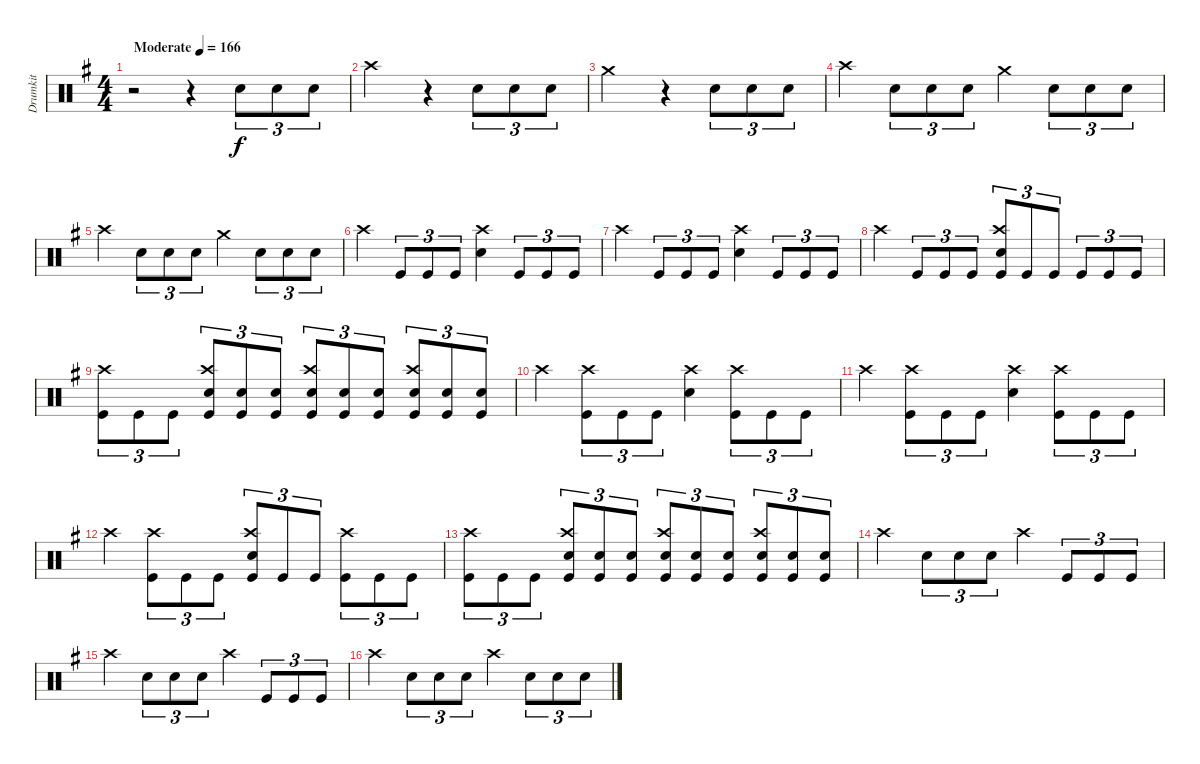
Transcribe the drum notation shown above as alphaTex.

\track ("Drumkit" "Drumkit") {instrument percussion}
\staff {score}
\articulation defaults
\ts (4 4)
\tempo (166 "Moderate")
\clef neutral
\ks g
r.2{dy f} r.4 "Snare (hit) 2".8{tu (3 2)} "Snare (hit) 2".8{tu (3 2)} "Snare (hit) 2".8{tu (3 2)} |
"Crash high (hit)".2 r.4 "Snare (hit) 2".8{tu (3 2)} "Snare (hit) 2".8{tu (3 2)} "Snare (hit) 2".8{tu (3 2)} |
"Crash medium (hit)".2 r.4 "Snare (hit) 2".8{tu (3 2)} "Snare (hit) 2".8{tu (3 2)} "Snare (hit) 2".8{tu (3 2)} |
"Crash high (hit)".4 "Snare (hit) 2".8{tu (3 2)} "Snare (hit) 2".8{tu (3 2)} "Snare (hit) 2".8{tu (3 2)} "Crash medium (hit)".4 "Snare (hit) 2".8{tu (3 2)} "Snare (hit) 2".8{tu (3 2)} "Snare (hit) 2".8{tu (3 2)} |
"Crash high (hit)".4 "Snare (hit) 2".8{tu (3 2)} "Snare (hit) 2".8{tu (3 2)} "Snare (hit) 2".8{tu (3 2)} "Crash medium (hit)".4 "Snare (hit) 2".8{tu (3 2)} "Snare (hit) 2".8{tu (3 2)} "Snare (hit) 2".8{tu (3 2)} |
"Crash high (hit)".4 "Kick (hit)".8{tu (3 2)} "Kick (hit)".8{tu (3 2)} "Kick (hit)".8{tu (3 2)} ("Crash high (hit)" "Snare (hit) 2").4 "Kick (hit)".8{tu (3 2)} "Kick (hit)".8{tu (3 2)} "Kick (hit)".8{tu (3 2)} |
"Crash high (hit)".4 "Kick (hit)".8{tu (3 2)} "Kick (hit)".8{tu (3 2)} "Kick (hit)".8{tu (3 2)} ("Crash high (hit)" "Snare (hit) 2").4 "Kick (hit)".8{tu (3 2)} "Kick (hit)".8{tu (3 2)} "Kick (hit)".8{tu (3 2)} |
"Crash high (hit)".4 "Kick (hit)".8{tu (3 2)} "Kick (hit)".8{tu (3 2)} "Kick (hit)".8{tu (3 2)} ("Crash high (hit)" "Snare (hit) 2" "Kick (hit)").8{tu (3 2)} "Kick (hit)".8{tu (3 2)} "Kick (hit)".8{tu (3 2)} "Kick (hit)".8{tu (3 2)} "Kick (hit)".8{tu (3 2)} "Kick (hit)".8{tu (3 2)} |
("Crash high (hit)" "Kick (hit)").8{tu (3 2)} "Kick (hit)".8{tu (3 2)} "Kick (hit)".8{tu (3 2)} ("Crash high (hit)" "Snare (hit) 2" "Kick (hit)").8{tu (3 2)} ("Snare (hit) 2" "Kick (hit)").8{tu (3 2)} ("Snare (hit) 2" "Kick (hit)").8{tu (3 2)} ("Crash high (hit)" "Snare (hit) 2" "Kick (hit)").8{tu (3 2)} ("Snare (hit) 2" "Kick (hit)").8{tu (3 2)} ("Snare (hit) 2" "Kick (hit)").8{tu (3 2)} ("Crash high (hit)" "Snare (hit) 2" "Kick (hit)").8{tu (3 2)} ("Snare (hit) 2" "Kick (hit)").8{tu (3 2)} ("Snare (hit) 2" "Kick (hit)").8{tu (3 2)} |
"Crash high (hit)".4 ("Crash high (hit)" "Kick (hit)").8{tu (3 2)} "Kick (hit)".8{tu (3 2)} "Kick (hit)".8{tu (3 2)} ("Crash high (hit)" "Snare (hit) 2").4 ("Crash high (hit)" "Kick (hit)").8{tu (3 2)} "Kick (hit)".8{tu (3 2)} "Kick (hit)".8{tu (3 2)} |
"Crash high (hit)".4 ("Crash high (hit)" "Kick (hit)").8{tu (3 2)} "Kick (hit)".8{tu (3 2)} "Kick (hit)".8{tu (3 2)} ("Crash high (hit)" "Snare (hit) 2").4 ("Crash high (hit)" "Kick (hit)").8{tu (3 2)} "Kick (hit)".8{tu (3 2)} "Kick (hit)".8{tu (3 2)} |
"Crash high (hit)".4 ("Crash high (hit)" "Kick (hit)").8{tu (3 2)} "Kick (hit)".8{tu (3 2)} "Kick (hit)".8{tu (3 2)} ("Crash high (hit)" "Snare (hit) 2" "Kick (hit)").8{tu (3 2)} "Kick (hit)".8{tu (3 2)} "Kick (hit)".8{tu (3 2)} ("Crash high (hit)" "Kick (hit)").8{tu (3 2)} "Kick (hit)".8{tu (3 2)} "Kick (hit)".8{tu (3 2)} |
("Crash high (hit)" "Kick (hit)").8{tu (3 2)} "Kick (hit)".8{tu (3 2)} "Kick (hit)".8{tu (3 2)} ("Crash high (hit)" "Snare (hit) 2" "Kick (hit)").8{tu (3 2)} ("Snare (hit) 2" "Kick (hit)").8{tu (3 2)} ("Snare (hit) 2" "Kick (hit)").8{tu (3 2)} ("Crash high (hit)" "Snare (hit) 2" "Kick (hit)").8{tu (3 2)} ("Snare (hit) 2" "Kick (hit)").8{tu (3 2)} ("Snare (hit) 2" "Kick (hit)").8{tu (3 2)} ("Crash high (hit)" "Snare (hit) 2" "Kick (hit)").8{tu (3 2)} ("Snare (hit) 2" "Kick (hit)").8{tu (3 2)} ("Snare (hit) 2" "Kick (hit)").8{tu (3 2)} |
"Crash high (hit)".4 "Snare (hit) 2".8{tu (3 2)} "Snare (hit) 2".8{tu (3 2)} "Snare (hit) 2".8{tu (3 2)} "Crash high (hit)".4 "Kick (hit)".8{tu (3 2)} "Kick (hit)".8{tu (3 2)} "Kick (hit)".8{tu (3 2)} |
"Crash high (hit)".4 "Snare (hit) 2".8{tu (3 2)} "Snare (hit) 2".8{tu (3 2)} "Snare (hit) 2".8{tu (3 2)} "Crash high (hit)".4 "Kick (hit)".8{tu (3 2)} "Kick (hit)".8{tu (3 2)} "Kick (hit)".8{tu (3 2)} |
"Crash high (hit)".4 "Snare (hit) 2".8{tu (3 2)} "Snare (hit) 2".8{tu (3 2)} "Snare (hit) 2".8{tu (3 2)} "Crash high (hit)".4 "Snare (hit) 2".8{tu (3 2)} "Snare (hit) 2".8{tu (3 2)} "Snare (hit) 2".8{tu (3 2)}
